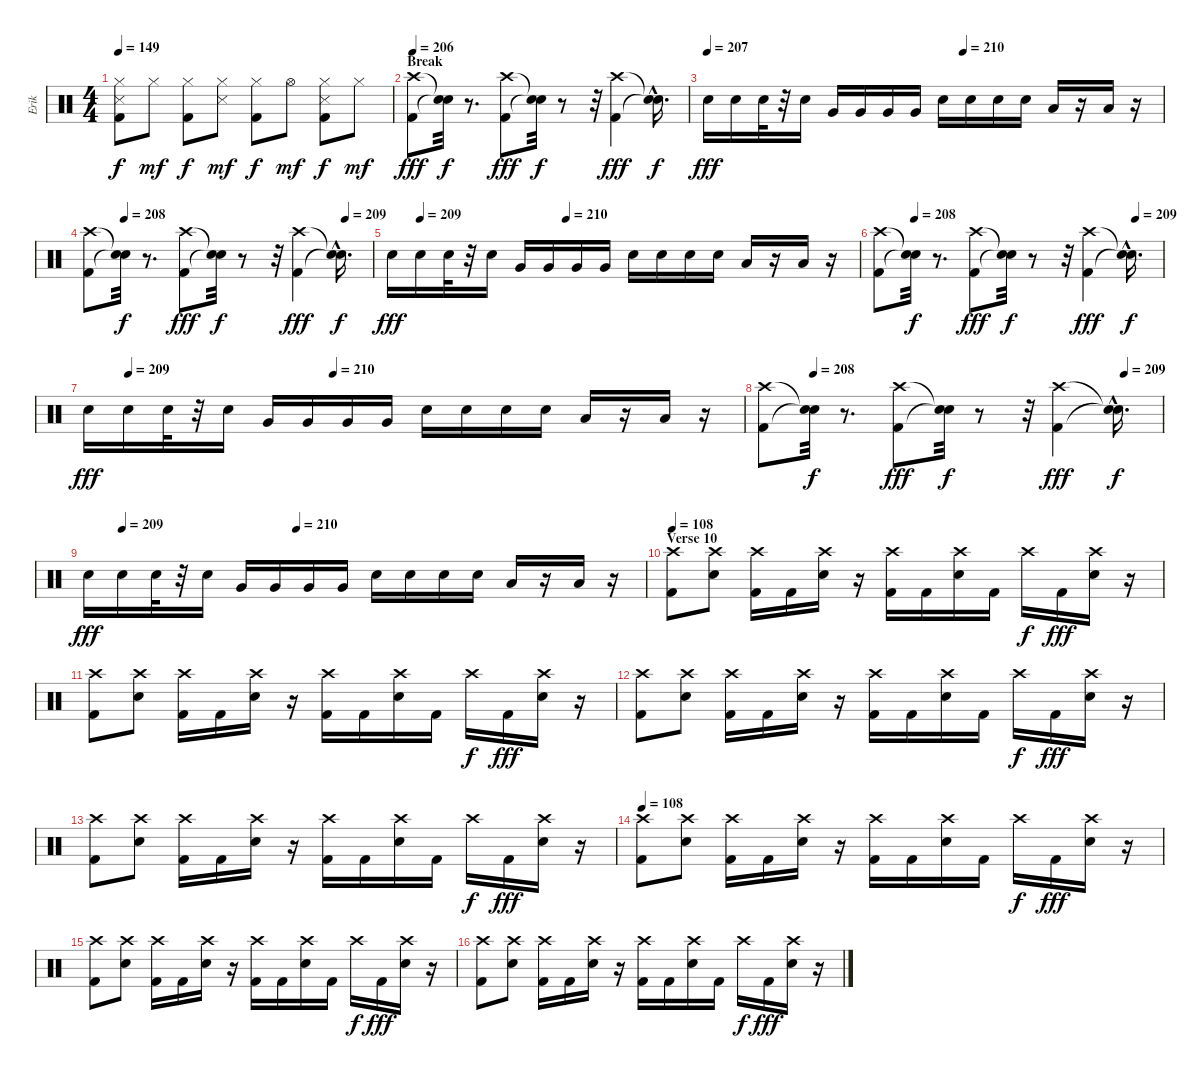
\track ("Erik" "Erik") {instrument percussion}
\staff {score}
\articulation defaults
\ts (4 4)
\tempo 149
\clef neutral
\ks c
("Snare (side stick) 3" "Kick (hit) 2" "Hi-Hat (closed)").8{dy f} "Hi-Hat (closed)".8{dy mf} ("Hi-Hat (closed)" "Kick (hit) 2").8{dy f} ("Hi-Hat (closed)" "Snare (side stick) 3").8{dy mf} ("Kick (hit) 2" "Hi-Hat (closed)").8{dy f} "Hi-Hat (open)".8{dy mf} ("Kick (hit) 2" "Snare (side stick) 3" "Hi-Hat (closed)").8{dy f} "Hi-Hat (closed)".8{dy mf} |
\section ("" "Break")
\tempo 206
("Crash high (hit)" "Kick (hit) 2").8{dy fff} ("Snare (hit)"{t} "Snare (hit)"{t}).32{dy f} r.8{d} ("Crash high (hit)" "Kick (hit) 2").8{dy fff} ("Snare (hit)"{t} "Snare (hit)"{t}).32{dy f} r.8 r.32 ("Kick (hit) 2" "Crash high (hit)").4{dy fff} ("Snare (hit)"{hac t} "Snare (hit)"{hac t}).16{d dy f} |
\tempo 207
\tempo (210 0.5625)
"Electric Snare (hit)".16{dy fff} "Electric Snare (hit)".16 "Electric Snare (hit)".32 r.32 "Electric Snare (hit)".16 "Very Low Tom (hit)".16 "Very Low Tom (hit)".16 "Very Low Tom (hit)".16 "Very Low Tom (hit)".16 "Electric Snare (hit)".16 "Electric Snare (hit)".16 "Electric Snare (hit)".16 "Electric Snare (hit)".16 "Low Floor Tom (hit)".16 r.16 "Low Floor Tom (hit)".16 r.16 |
\tempo (208 0.125)
\tempo (209 0.90625)
("Crash high (hit)" "Kick (hit) 2").8 ("Snare (hit)"{t} "Snare (hit)"{t}).32{dy f} r.8{d} ("Crash high (hit)" "Kick (hit) 2").8{dy fff} ("Snare (hit)"{t} "Snare (hit)"{t}).32{dy f} r.8 r.32 ("Kick (hit) 2" "Crash high (hit)").4{dy fff} ("Snare (hit)"{hac t} "Snare (hit)"{hac t}).16{d dy f} |
\tempo (209 0.0625)
\tempo (210 0.375)
"Electric Snare (hit)".16{dy fff} "Electric Snare (hit)".16 "Electric Snare (hit)".32 r.32 "Electric Snare (hit)".16 "Very Low Tom (hit)".16 "Very Low Tom (hit)".16 "Very Low Tom (hit)".16 "Very Low Tom (hit)".16 "Electric Snare (hit)".16 "Electric Snare (hit)".16 "Electric Snare (hit)".16 "Electric Snare (hit)".16 "Low Floor Tom (hit)".16 r.16 "Low Floor Tom (hit)".16 r.16 |
\tempo (208 0.125)
\tempo (209 0.90625)
("Crash high (hit)" "Kick (hit) 2").8 ("Snare (hit)"{t} "Snare (hit)"{t}).32{dy f} r.8{d} ("Crash high (hit)" "Kick (hit) 2").8{dy fff} ("Snare (hit)"{t} "Snare (hit)"{t}).32{dy f} r.8 r.32 ("Kick (hit) 2" "Crash high (hit)").4{dy fff} ("Snare (hit)"{hac t} "Snare (hit)"{hac t}).16{d dy f} |
\tempo (209 0.0625)
\tempo (210 0.375)
"Electric Snare (hit)".16{dy fff} "Electric Snare (hit)".16 "Electric Snare (hit)".32 r.32 "Electric Snare (hit)".16 "Very Low Tom (hit)".16 "Very Low Tom (hit)".16 "Very Low Tom (hit)".16 "Very Low Tom (hit)".16 "Electric Snare (hit)".16 "Electric Snare (hit)".16 "Electric Snare (hit)".16 "Electric Snare (hit)".16 "Low Floor Tom (hit)".16 r.16 "Low Floor Tom (hit)".16 r.16 |
\tempo (208 0.125)
\tempo (209 0.90625)
("Crash high (hit)" "Kick (hit) 2").8 ("Snare (hit)"{t} "Snare (hit)"{t}).32{dy f} r.8{d} ("Crash high (hit)" "Kick (hit) 2").8{dy fff} ("Snare (hit)"{t} "Snare (hit)"{t}).32{dy f} r.8 r.32 ("Kick (hit) 2" "Crash high (hit)").4{dy fff} ("Snare (hit)"{hac t} "Snare (hit)"{hac t}).16{d dy f} |
\tempo (209 0.0625)
\tempo (210 0.375)
"Electric Snare (hit)".16{dy fff} "Electric Snare (hit)".16 "Electric Snare (hit)".32 r.32 "Electric Snare (hit)".16 "Very Low Tom (hit)".16 "Very Low Tom (hit)".16 "Very Low Tom (hit)".16 "Very Low Tom (hit)".16 "Electric Snare (hit)".16 "Electric Snare (hit)".16 "Electric Snare (hit)".16 "Electric Snare (hit)".16 "Low Floor Tom (hit)".16 r.16 "Low Floor Tom (hit)".16 r.16 |
\section ("" "Verse 10")
\tempo 108
("Crash high (hit)" "Kick (hit) 2").8 ("Crash high (hit)" "Electric Snare (hit)").8 ("Crash high (hit)" "Kick (hit) 2").16 "Kick (hit) 2".16 ("Crash high (hit)" "Electric Snare (hit)").16 r.16 ("Crash high (hit)" "Kick (hit) 2").16 "Kick (hit) 2".16 ("Crash high (hit)" "Electric Snare (hit)").16 "Kick (hit) 2".16 "Crash high (hit)".16{dy f} "Kick (hit) 2".16{dy fff} ("Crash high (hit)" "Electric Snare (hit)").16 r.16 |
("Crash high (hit)" "Kick (hit) 2").8 ("Crash high (hit)" "Electric Snare (hit)").8 ("Crash high (hit)" "Kick (hit) 2").16 "Kick (hit) 2".16 ("Crash high (hit)" "Electric Snare (hit)").16 r.16 ("Crash high (hit)" "Kick (hit) 2").16 "Kick (hit) 2".16 ("Crash high (hit)" "Electric Snare (hit)").16 "Kick (hit) 2".16 "Crash high (hit)".16{dy f} "Kick (hit) 2".16{dy fff} ("Crash high (hit)" "Electric Snare (hit)").16 r.16 |
("Crash high (hit)" "Kick (hit) 2").8 ("Crash high (hit)" "Electric Snare (hit)").8 ("Crash high (hit)" "Kick (hit) 2").16 "Kick (hit) 2".16 ("Crash high (hit)" "Electric Snare (hit)").16 r.16 ("Crash high (hit)" "Kick (hit) 2").16 "Kick (hit) 2".16 ("Crash high (hit)" "Electric Snare (hit)").16 "Kick (hit) 2".16 "Crash high (hit)".16{dy f} "Kick (hit) 2".16{dy fff} ("Crash high (hit)" "Electric Snare (hit)").16 r.16 |
("Crash high (hit)" "Kick (hit) 2").8 ("Crash high (hit)" "Electric Snare (hit)").8 ("Crash high (hit)" "Kick (hit) 2").16 "Kick (hit) 2".16 ("Crash high (hit)" "Electric Snare (hit)").16 r.16 ("Crash high (hit)" "Kick (hit) 2").16 "Kick (hit) 2".16 ("Crash high (hit)" "Electric Snare (hit)").16 "Kick (hit) 2".16 "Crash high (hit)".16{dy f} "Kick (hit) 2".16{dy fff} ("Crash high (hit)" "Electric Snare (hit)").16 r.16 |
\tempo 108
("Crash high (hit)" "Kick (hit) 2").8 ("Crash high (hit)" "Electric Snare (hit)").8 ("Crash high (hit)" "Kick (hit) 2").16 "Kick (hit) 2".16 ("Crash high (hit)" "Electric Snare (hit)").16 r.16 ("Crash high (hit)" "Kick (hit) 2").16 "Kick (hit) 2".16 ("Crash high (hit)" "Electric Snare (hit)").16 "Kick (hit) 2".16 "Crash high (hit)".16{dy f} "Kick (hit) 2".16{dy fff} ("Crash high (hit)" "Electric Snare (hit)").16 r.16 |
("Crash high (hit)" "Kick (hit) 2").8 ("Crash high (hit)" "Electric Snare (hit)").8 ("Crash high (hit)" "Kick (hit) 2").16 "Kick (hit) 2".16 ("Crash high (hit)" "Electric Snare (hit)").16 r.16 ("Crash high (hit)" "Kick (hit) 2").16 "Kick (hit) 2".16 ("Crash high (hit)" "Electric Snare (hit)").16 "Kick (hit) 2".16 "Crash high (hit)".16{dy f} "Kick (hit) 2".16{dy fff} ("Crash high (hit)" "Electric Snare (hit)").16 r.16 |
("Crash high (hit)" "Kick (hit) 2").8 ("Crash high (hit)" "Electric Snare (hit)").8 ("Crash high (hit)" "Kick (hit) 2").16 "Kick (hit) 2".16 ("Crash high (hit)" "Electric Snare (hit)").16 r.16 ("Crash high (hit)" "Kick (hit) 2").16 "Kick (hit) 2".16 ("Crash high (hit)" "Electric Snare (hit)").16 "Kick (hit) 2".16 "Crash high (hit)".16{dy f} "Kick (hit) 2".16{dy fff} ("Crash high (hit)" "Electric Snare (hit)").16 r.16
